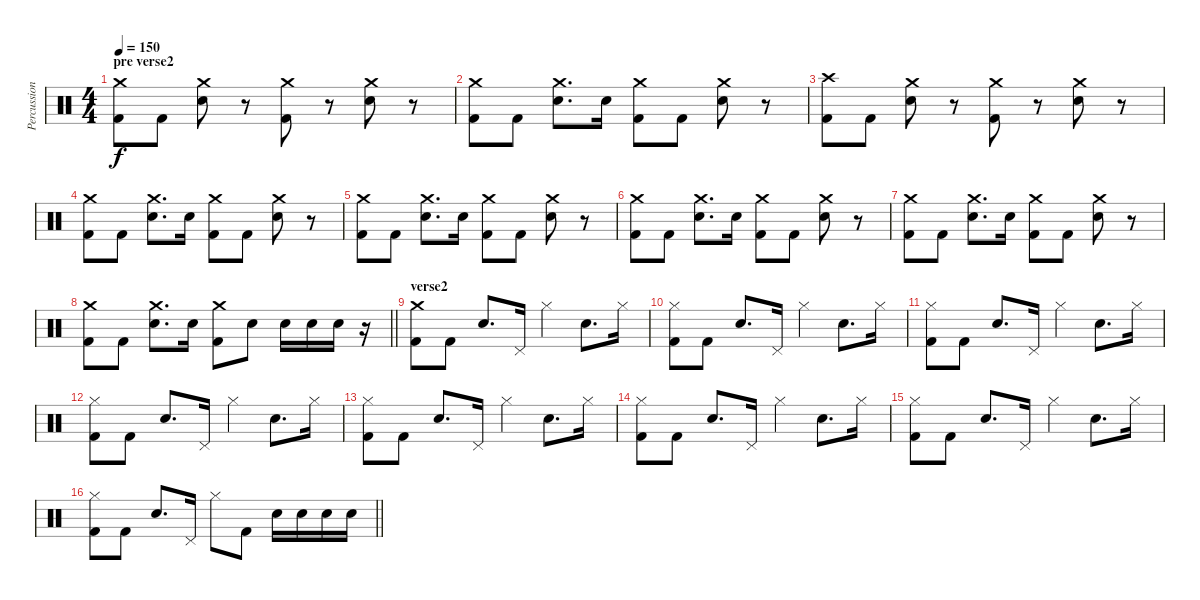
\track ("Percussion" "Percussion") {instrument percussion}
\staff {score}
\articulation defaults
\ts (4 4)
\section ("" "pre verse2")
\tempo 150
\clef neutral
\ks c
("Crash medium (hit)" "Kick (hit) 2").8{dy f} "Kick (hit) 2".8 ("Crash medium (hit)" "Electric Snare (hit)").8 r.8 ("Crash medium (hit)" "Kick (hit) 2").8 r.8 ("Crash medium (hit)" "Electric Snare (hit)").8 r.8 |
("Crash medium (hit)" "Kick (hit) 2").8 "Kick (hit) 2".8 ("Crash medium (hit)" "Electric Snare (hit)").8{d} "Electric Snare (hit)".16 ("Crash medium (hit)" "Kick (hit) 2").8 "Kick (hit) 2".8 ("Crash medium (hit)" "Electric Snare (hit)").8 r.8 |
("Crash high (hit)" "Kick (hit) 2").8 "Kick (hit) 2".8 ("Crash medium (hit)" "Electric Snare (hit)").8 r.8 ("Crash medium (hit)" "Kick (hit) 2").8 r.8 ("Crash medium (hit)" "Electric Snare (hit)").8 r.8 |
("Crash medium (hit)" "Kick (hit) 2").8 "Kick (hit) 2".8 ("Crash medium (hit)" "Electric Snare (hit)").8{d} "Electric Snare (hit)".16 ("Crash medium (hit)" "Kick (hit) 2").8 "Kick (hit) 2".8 ("Crash medium (hit)" "Electric Snare (hit)").8 r.8 |
("Crash medium (hit)" "Kick (hit) 2").8 "Kick (hit) 2".8 ("Crash medium (hit)" "Electric Snare (hit)").8{d} "Electric Snare (hit)".16 ("Crash medium (hit)" "Kick (hit) 2").8 "Kick (hit) 2".8 ("Crash medium (hit)" "Electric Snare (hit)").8 r.8 |
("Crash medium (hit)" "Kick (hit) 2").8 "Kick (hit) 2".8 ("Crash medium (hit)" "Electric Snare (hit)").8{d} "Electric Snare (hit)".16 ("Crash medium (hit)" "Kick (hit) 2").8 "Kick (hit) 2".8 ("Crash medium (hit)" "Electric Snare (hit)").8 r.8 |
("Crash medium (hit)" "Kick (hit) 2").8 "Kick (hit) 2".8 ("Crash medium (hit)" "Electric Snare (hit)").8{d} "Electric Snare (hit)".16 ("Crash medium (hit)" "Kick (hit) 2").8 "Kick (hit) 2".8 ("Crash medium (hit)" "Electric Snare (hit)").8 r.8 |
\barLineRight lightlight
("Crash medium (hit)" "Kick (hit) 2").8 "Kick (hit) 2".8 ("Crash medium (hit)" "Electric Snare (hit)").8{d} "Electric Snare (hit)".16 ("Crash medium (hit)" "Kick (hit) 2").8 "Electric Snare (hit)".8 "Electric Snare (hit)".16 "Electric Snare (hit)".16 "Electric Snare (hit)".16 r.16 |
\section ("" "verse2")
("Crash medium (hit)" "Kick (hit) 2").8 "Kick (hit) 2".8 "Electric Snare (hit)".8{d} "Pedal Hi-Hat (hit)".16 "Hi-Hat (closed)".4 "Electric Snare (hit)".8{d} "Hi-Hat (closed)".16 |
("Hi-Hat (closed)" "Kick (hit) 2").8 "Kick (hit) 2".8 "Electric Snare (hit)".8{d} "Pedal Hi-Hat (hit)".16 "Hi-Hat (closed)".4 "Electric Snare (hit)".8{d} "Hi-Hat (closed)".16 |
("Hi-Hat (closed)" "Kick (hit) 2").8 "Kick (hit) 2".8 "Electric Snare (hit)".8{d} "Pedal Hi-Hat (hit)".16 "Hi-Hat (closed)".4 "Electric Snare (hit)".8{d} "Hi-Hat (closed)".16 |
("Hi-Hat (closed)" "Kick (hit) 2").8 "Kick (hit) 2".8 "Electric Snare (hit)".8{d} "Pedal Hi-Hat (hit)".16 "Hi-Hat (closed)".4 "Electric Snare (hit)".8{d} "Hi-Hat (closed)".16 |
("Hi-Hat (closed)" "Kick (hit) 2").8 "Kick (hit) 2".8 "Electric Snare (hit)".8{d} "Pedal Hi-Hat (hit)".16 "Hi-Hat (closed)".4 "Electric Snare (hit)".8{d} "Hi-Hat (closed)".16 |
("Hi-Hat (closed)" "Kick (hit) 2").8 "Kick (hit) 2".8 "Electric Snare (hit)".8{d} "Pedal Hi-Hat (hit)".16 "Hi-Hat (closed)".4 "Electric Snare (hit)".8{d} "Hi-Hat (closed)".16 |
("Hi-Hat (closed)" "Kick (hit) 2").8 "Kick (hit) 2".8 "Electric Snare (hit)".8{d} "Pedal Hi-Hat (hit)".16 "Hi-Hat (closed)".4 "Electric Snare (hit)".8{d} "Hi-Hat (closed)".16 |
\barLineRight lightlight
("Hi-Hat (closed)" "Kick (hit) 2").8 "Kick (hit) 2".8 "Electric Snare (hit)".8{d} "Pedal Hi-Hat (hit)".16 "Hi-Hat (closed)".8 "Kick (hit) 2".8 "Electric Snare (hit)".16 "Electric Snare (hit)".16 "Electric Snare (hit)".16 "Electric Snare (hit)".16
